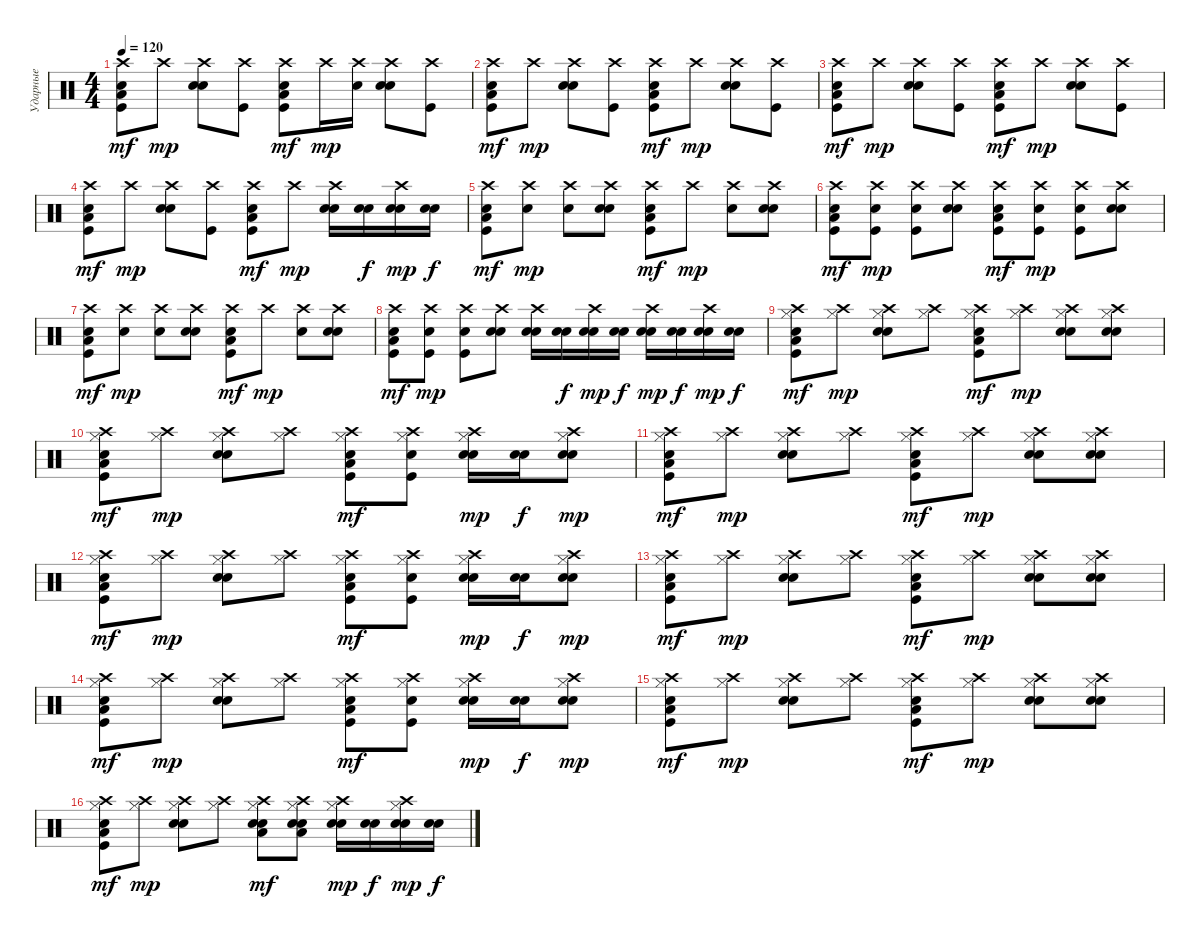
\track ("Ударные" "Ударные") {instrument percussion}
\staff {score}
\articulation defaults
\ts (4 4)
\tempo 120
\clef neutral
\ks c
("Crash high (hit)" "Electric Snare (hit)" "Kick (hit)" "Low Floor Tom (hit)").8{dy mf} "Crash high (hit)".8{dy mp} ("Crash high (hit)" "Electric Snare (hit)" "Electric Snare (hit)").8 ("Crash high (hit)" "Kick (hit)").8 ("Crash high (hit)" "Electric Snare (hit)" "Kick (hit)" "Low Floor Tom (hit)").8{dy mf} "Crash high (hit)".16{dy mp} ("Crash high (hit)" "Electric Snare (hit)").16 ("Crash high (hit)" "Electric Snare (hit)" "Electric Snare (hit)").8 ("Crash high (hit)" "Kick (hit)").8 |
("Crash high (hit)" "Electric Snare (hit)" "Kick (hit)" "Low Floor Tom (hit)").8{dy mf} "Crash high (hit)".8{dy mp} ("Crash high (hit)" "Electric Snare (hit)" "Electric Snare (hit)").8 ("Crash high (hit)" "Kick (hit)").8 ("Crash high (hit)" "Electric Snare (hit)" "Kick (hit)" "Low Floor Tom (hit)").8{dy mf} "Crash high (hit)".8{dy mp} ("Crash high (hit)" "Electric Snare (hit)" "Electric Snare (hit)").8 ("Crash high (hit)" "Kick (hit)").8 |
("Crash high (hit)" "Electric Snare (hit)" "Kick (hit)" "Low Floor Tom (hit)").8{dy mf} "Crash high (hit)".8{dy mp} ("Crash high (hit)" "Electric Snare (hit)" "Electric Snare (hit)").8 ("Crash high (hit)" "Kick (hit)").8 ("Crash high (hit)" "Electric Snare (hit)" "Kick (hit)" "Low Floor Tom (hit)").8{dy mf} "Crash high (hit)".8{dy mp} ("Crash high (hit)" "Electric Snare (hit)" "Electric Snare (hit)").8 ("Crash high (hit)" "Kick (hit)").8 |
("Crash high (hit)" "Electric Snare (hit)" "Kick (hit)" "Low Floor Tom (hit)").8{dy mf} "Crash high (hit)".8{dy mp} ("Crash high (hit)" "Electric Snare (hit)" "Electric Snare (hit)").8 ("Crash high (hit)" "Kick (hit)").8 ("Crash high (hit)" "Electric Snare (hit)" "Kick (hit)" "Low Floor Tom (hit)").8{dy mf} "Crash high (hit)".8{dy mp} ("Crash high (hit)" "Electric Snare (hit)" "Electric Snare (hit)").16 ("Electric Snare (hit)" "Electric Snare (hit)").16{dy f} ("Crash high (hit)" "Electric Snare (hit)" "Electric Snare (hit)").16{dy mp} ("Electric Snare (hit)" "Electric Snare (hit)").16{dy f} |
("Crash high (hit)" "Electric Snare (hit)" "Kick (hit)" "Low Floor Tom (hit)").8{dy mf} ("Crash high (hit)" "Electric Snare (hit)").8{dy mp} ("Crash high (hit)" "Electric Snare (hit)").8 ("Crash high (hit)" "Electric Snare (hit)" "Electric Snare (hit)").8 ("Crash high (hit)" "Electric Snare (hit)" "Kick (hit)" "Low Floor Tom (hit)").8{dy mf} "Crash high (hit)".8{dy mp} ("Crash high (hit)" "Electric Snare (hit)").8 ("Crash high (hit)" "Electric Snare (hit)" "Electric Snare (hit)").8 |
("Crash high (hit)" "Electric Snare (hit)" "Kick (hit)" "Low Floor Tom (hit)").8{dy mf} ("Crash high (hit)" "Electric Snare (hit)" "Kick (hit)").8{dy mp} ("Crash high (hit)" "Electric Snare (hit)" "Kick (hit)").8 ("Crash high (hit)" "Electric Snare (hit)" "Electric Snare (hit)").8 ("Crash high (hit)" "Electric Snare (hit)" "Kick (hit)" "Low Floor Tom (hit)").8{dy mf} ("Crash high (hit)" "Electric Snare (hit)" "Kick (hit)").8{dy mp} ("Crash high (hit)" "Electric Snare (hit)" "Kick (hit)").8 ("Crash high (hit)" "Electric Snare (hit)" "Electric Snare (hit)").8 |
("Crash high (hit)" "Electric Snare (hit)" "Kick (hit)" "Low Floor Tom (hit)").8{dy mf} ("Crash high (hit)" "Electric Snare (hit)").8{dy mp} ("Crash high (hit)" "Electric Snare (hit)").8 ("Crash high (hit)" "Electric Snare (hit)" "Electric Snare (hit)").8 ("Crash high (hit)" "Electric Snare (hit)" "Kick (hit)" "Low Floor Tom (hit)").8{dy mf} "Crash high (hit)".8{dy mp} ("Crash high (hit)" "Electric Snare (hit)").8 ("Crash high (hit)" "Electric Snare (hit)" "Electric Snare (hit)").8 |
("Crash high (hit)" "Electric Snare (hit)" "Kick (hit)" "Low Floor Tom (hit)").8{dy mf} ("Crash high (hit)" "Electric Snare (hit)" "Kick (hit)").8{dy mp} ("Crash high (hit)" "Electric Snare (hit)" "Kick (hit)").8 ("Crash high (hit)" "Electric Snare (hit)" "Electric Snare (hit)").8 ("Crash high (hit)" "Electric Snare (hit)" "Electric Snare (hit)").16 ("Electric Snare (hit)" "Electric Snare (hit)").16{dy f} ("Crash high (hit)" "Electric Snare (hit)" "Electric Snare (hit)").16{dy mp} ("Electric Snare (hit)" "Electric Snare (hit)").16{dy f} ("Crash high (hit)" "Electric Snare (hit)" "Electric Snare (hit)").16{dy mp} ("Electric Snare (hit)" "Electric Snare (hit)").16{dy f} ("Crash high (hit)" "Electric Snare (hit)" "Electric Snare (hit)").16{dy mp} ("Electric Snare (hit)" "Electric Snare (hit)").16{dy f} |
("Hi-Hat (closed)" "Crash high (hit)" "Snare (hit) 2" "Kick (hit)" "Low Floor Tom (hit)").8{dy mf} ("Hi-Hat (closed)" "Crash high (hit)").8{dy mp} ("Hi-Hat (closed)" "Crash high (hit)" "Electric Snare (hit)" "Electric Snare (hit)").8 ("Hi-Hat (closed)" "Crash high (hit)").8 ("Hi-Hat (closed)" "Crash high (hit)" "Snare (hit) 2" "Kick (hit)" "Low Floor Tom (hit)").8{dy mf} ("Hi-Hat (closed)" "Crash high (hit)").8{dy mp} ("Hi-Hat (closed)" "Crash high (hit)" "Electric Snare (hit)" "Electric Snare (hit)").8 ("Hi-Hat (closed)" "Crash high (hit)" "Electric Snare (hit)" "Electric Snare (hit)").8 |
("Hi-Hat (closed)" "Crash high (hit)" "Snare (hit) 2" "Kick (hit)" "Low Floor Tom (hit)").8{dy mf} ("Hi-Hat (closed)" "Crash high (hit)").8{dy mp} ("Hi-Hat (closed)" "Crash high (hit)" "Electric Snare (hit)" "Electric Snare (hit)").8 ("Hi-Hat (closed)" "Crash high (hit)").8 ("Hi-Hat (closed)" "Crash high (hit)" "Snare (hit) 2" "Kick (hit)" "Low Floor Tom (hit)").8{dy mf} ("Hi-Hat (closed)" "Crash high (hit)" "Snare (hit) 2" "Kick (hit)").8 ("Hi-Hat (closed)" "Crash high (hit)" "Electric Snare (hit)" "Electric Snare (hit)").16{dy mp} ("Electric Snare (hit)" "Electric Snare (hit)").16{dy f} ("Hi-Hat (closed)" "Crash high (hit)" "Electric Snare (hit)" "Electric Snare (hit)").8{dy mp} |
("Hi-Hat (closed)" "Crash high (hit)" "Snare (hit) 2" "Kick (hit)" "Low Floor Tom (hit)").8{dy mf} ("Hi-Hat (closed)" "Crash high (hit)").8{dy mp} ("Hi-Hat (closed)" "Crash high (hit)" "Electric Snare (hit)" "Electric Snare (hit)").8 ("Hi-Hat (closed)" "Crash high (hit)").8 ("Hi-Hat (closed)" "Crash high (hit)" "Snare (hit) 2" "Kick (hit)" "Low Floor Tom (hit)").8{dy mf} ("Hi-Hat (closed)" "Crash high (hit)").8{dy mp} ("Hi-Hat (closed)" "Crash high (hit)" "Electric Snare (hit)" "Electric Snare (hit)").8 ("Hi-Hat (closed)" "Crash high (hit)" "Electric Snare (hit)" "Electric Snare (hit)").8 |
("Hi-Hat (closed)" "Crash high (hit)" "Snare (hit) 2" "Kick (hit)" "Low Floor Tom (hit)").8{dy mf} ("Hi-Hat (closed)" "Crash high (hit)").8{dy mp} ("Hi-Hat (closed)" "Crash high (hit)" "Electric Snare (hit)" "Electric Snare (hit)").8 ("Hi-Hat (closed)" "Crash high (hit)").8 ("Hi-Hat (closed)" "Crash high (hit)" "Snare (hit) 2" "Kick (hit)" "Low Floor Tom (hit)").8{dy mf} ("Hi-Hat (closed)" "Crash high (hit)" "Snare (hit) 2" "Kick (hit)").8 ("Hi-Hat (closed)" "Crash high (hit)" "Electric Snare (hit)" "Electric Snare (hit)").16{dy mp} ("Electric Snare (hit)" "Electric Snare (hit)").16{dy f} ("Hi-Hat (closed)" "Crash high (hit)" "Electric Snare (hit)" "Electric Snare (hit)").8{dy mp} |
("Hi-Hat (closed)" "Crash high (hit)" "Snare (hit) 2" "Kick (hit)" "Low Floor Tom (hit)").8{dy mf} ("Hi-Hat (closed)" "Crash high (hit)").8{dy mp} ("Hi-Hat (closed)" "Crash high (hit)" "Electric Snare (hit)" "Electric Snare (hit)").8 ("Hi-Hat (closed)" "Crash high (hit)").8 ("Hi-Hat (closed)" "Crash high (hit)" "Snare (hit) 2" "Kick (hit)" "Low Floor Tom (hit)").8{dy mf} ("Hi-Hat (closed)" "Crash high (hit)").8{dy mp} ("Hi-Hat (closed)" "Crash high (hit)" "Electric Snare (hit)" "Electric Snare (hit)").8 ("Hi-Hat (closed)" "Crash high (hit)" "Electric Snare (hit)" "Electric Snare (hit)").8 |
("Hi-Hat (closed)" "Crash high (hit)" "Snare (hit) 2" "Kick (hit)" "Low Floor Tom (hit)").8{dy mf} ("Hi-Hat (closed)" "Crash high (hit)").8{dy mp} ("Hi-Hat (closed)" "Crash high (hit)" "Electric Snare (hit)" "Electric Snare (hit)").8 ("Hi-Hat (closed)" "Crash high (hit)").8 ("Hi-Hat (closed)" "Crash high (hit)" "Snare (hit) 2" "Kick (hit)" "Low Floor Tom (hit)").8{dy mf} ("Hi-Hat (closed)" "Crash high (hit)" "Snare (hit) 2" "Kick (hit)").8 ("Hi-Hat (closed)" "Crash high (hit)" "Electric Snare (hit)" "Electric Snare (hit)").16{dy mp} ("Electric Snare (hit)" "Electric Snare (hit)").16{dy f} ("Hi-Hat (closed)" "Crash high (hit)" "Electric Snare (hit)" "Electric Snare (hit)").8{dy mp} |
("Hi-Hat (closed)" "Crash high (hit)" "Snare (hit) 2" "Kick (hit)" "Low Floor Tom (hit)").8{dy mf} ("Hi-Hat (closed)" "Crash high (hit)").8{dy mp} ("Hi-Hat (closed)" "Crash high (hit)" "Electric Snare (hit)" "Electric Snare (hit)").8 ("Hi-Hat (closed)" "Crash high (hit)").8 ("Hi-Hat (closed)" "Crash high (hit)" "Snare (hit) 2" "Kick (hit)" "Low Floor Tom (hit)").8{dy mf} ("Hi-Hat (closed)" "Crash high (hit)").8{dy mp} ("Hi-Hat (closed)" "Crash high (hit)" "Electric Snare (hit)" "Electric Snare (hit)").8 ("Hi-Hat (closed)" "Crash high (hit)" "Electric Snare (hit)" "Electric Snare (hit)").8 |
("Hi-Hat (closed)" "Crash high (hit)" "Snare (hit) 2" "Kick (hit)" "Low Floor Tom (hit)").8{dy mf} ("Hi-Hat (closed)" "Crash high (hit)").8{dy mp} ("Hi-Hat (closed)" "Crash high (hit)" "Electric Snare (hit)" "Electric Snare (hit)").8 ("Hi-Hat (closed)" "Crash high (hit)").8 ("Hi-Hat (closed)" "Crash high (hit)" "Snare (hit) 2" "Electric Snare (hit)" "Low Floor Tom (hit)").8{dy mf} ("Hi-Hat (closed)" "Crash high (hit)" "Snare (hit) 2" "Electric Snare (hit)" "Low Floor Tom (hit)").8 ("Hi-Hat (closed)" "Crash high (hit)" "Electric Snare (hit)" "Electric Snare (hit)").16{dy mp} ("Electric Snare (hit)" "Electric Snare (hit)").16{dy f} ("Hi-Hat (closed)" "Crash high (hit)" "Electric Snare (hit)" "Electric Snare (hit)").16{dy mp} ("Electric Snare (hit)" "Electric Snare (hit)").16{dy f}
